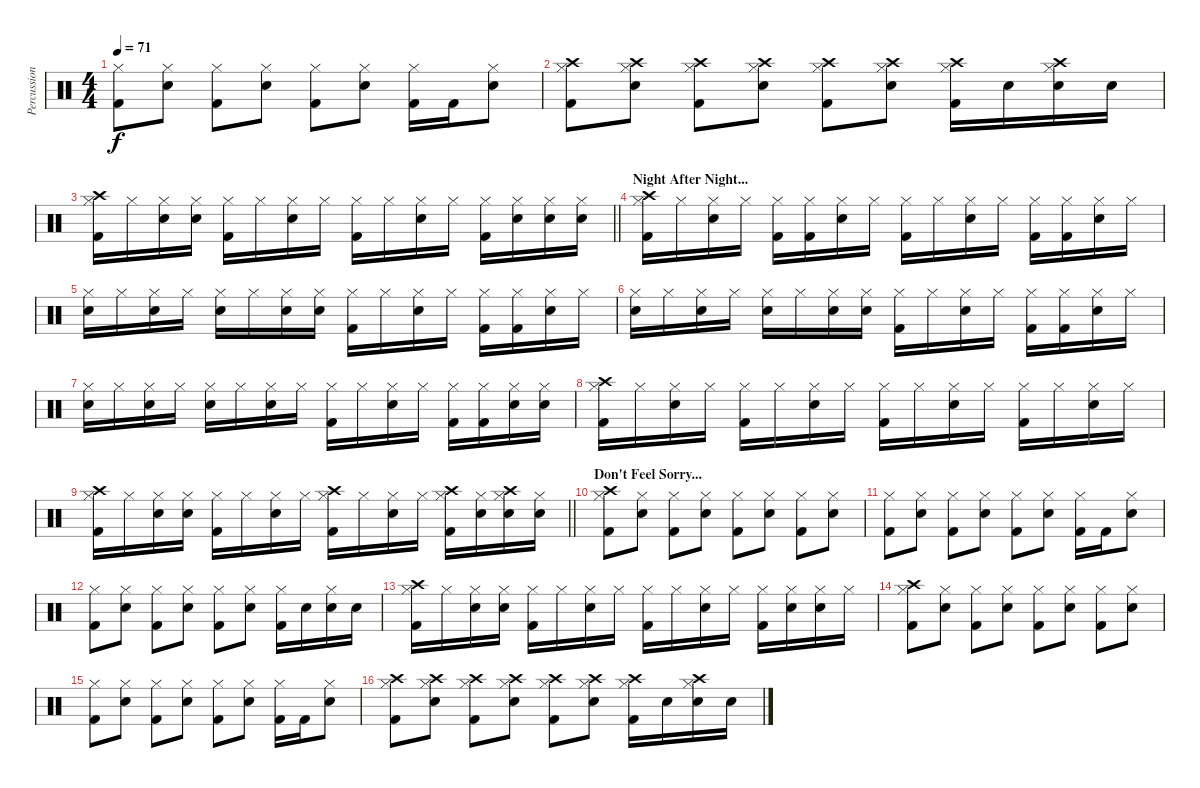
\track ("Percussion" "Percussion") {instrument percussion}
\staff {score}
\articulation defaults
\ts (4 4)
\tempo 71
\clef neutral
\ks c
("Kick (hit) 2" "Hi-Hat (closed)").8{dy f} ("Snare (hit) 2" "Hi-Hat (closed)").8 ("Kick (hit) 2" "Hi-Hat (closed)").8 ("Snare (hit) 2" "Hi-Hat (closed)").8 ("Kick (hit) 2" "Hi-Hat (closed)").8 ("Snare (hit) 2" "Hi-Hat (closed)").8 ("Kick (hit) 2" "Hi-Hat (closed)").16 "Kick (hit) 2".16 ("Snare (hit) 2" "Hi-Hat (closed)").8 |
("Crash high (hit)" "Kick (hit) 2" "Hi-Hat (closed)").8 ("Crash high (hit)" "Snare (hit) 2" "Hi-Hat (closed)").8 ("Crash high (hit)" "Kick (hit) 2" "Hi-Hat (closed)").8 ("Crash high (hit)" "Snare (hit) 2" "Hi-Hat (closed)").8 ("Crash high (hit)" "Kick (hit) 2" "Hi-Hat (closed)").8 ("Crash high (hit)" "Snare (hit) 2" "Hi-Hat (closed)").8 ("Crash high (hit)" "Kick (hit) 2" "Hi-Hat (closed)").16 "Snare (hit) 2".16 ("Crash high (hit)" "Snare (hit) 2" "Hi-Hat (closed)").16 "Snare (hit) 2".16 |
\barLineRight lightlight
("Crash high (hit)" "Hi-Hat (closed)" "Kick (hit) 2").16 "Hi-Hat (closed)".16 ("Hi-Hat (closed)" "Snare (hit) 2").16 ("Hi-Hat (closed)" "Snare (hit) 2").16 ("Hi-Hat (closed)" "Kick (hit) 2").16 "Hi-Hat (closed)".16 ("Hi-Hat (closed)" "Snare (hit) 2").16 "Hi-Hat (closed)".16 ("Hi-Hat (closed)" "Kick (hit) 2").16 "Hi-Hat (closed)".16 ("Hi-Hat (closed)" "Snare (hit) 2").16 "Hi-Hat (closed)".16 ("Hi-Hat (closed)" "Kick (hit) 2").16 ("Hi-Hat (closed)" "Snare (hit) 2").16 ("Hi-Hat (closed)" "Snare (hit) 2").16 ("Hi-Hat (closed)" "Snare (hit) 2").16 |
\section ("" "Night After Night...")
("Crash high (hit)" "Hi-Hat (closed)" "Kick (hit) 2").16 "Hi-Hat (closed)".16 ("Hi-Hat (closed)" "Snare (hit) 2").16 "Hi-Hat (closed)".16 ("Hi-Hat (closed)" "Kick (hit) 2").16 ("Hi-Hat (closed)" "Kick (hit) 2").16 ("Hi-Hat (closed)" "Snare (hit) 2").16 "Hi-Hat (closed)".16 ("Hi-Hat (closed)" "Kick (hit) 2").16 "Hi-Hat (closed)".16 ("Hi-Hat (closed)" "Snare (hit) 2").16 "Hi-Hat (closed)".16 ("Hi-Hat (closed)" "Kick (hit) 2").16 ("Hi-Hat (closed)" "Kick (hit) 2").16 ("Hi-Hat (closed)" "Snare (hit) 2").16 "Hi-Hat (closed)".16 |
("Hi-Hat (closed)" "Snare (hit) 2").16 "Hi-Hat (closed)".16 ("Hi-Hat (closed)" "Snare (hit) 2").16 "Hi-Hat (closed)".16 ("Hi-Hat (closed)" "Snare (hit) 2").16 "Hi-Hat (closed)".16 ("Hi-Hat (closed)" "Snare (hit) 2").16 ("Hi-Hat (closed)" "Snare (hit) 2").16 ("Hi-Hat (closed)" "Kick (hit) 2").16 "Hi-Hat (closed)".16 ("Hi-Hat (closed)" "Snare (hit) 2").16 "Hi-Hat (closed)".16 ("Hi-Hat (closed)" "Kick (hit) 2").16 ("Hi-Hat (closed)" "Kick (hit) 2").16 ("Hi-Hat (closed)" "Snare (hit) 2").16 "Hi-Hat (closed)".16 |
("Hi-Hat (closed)" "Snare (hit) 2").16 "Hi-Hat (closed)".16 ("Hi-Hat (closed)" "Snare (hit) 2").16 "Hi-Hat (closed)".16 ("Hi-Hat (closed)" "Snare (hit) 2").16 "Hi-Hat (closed)".16 ("Hi-Hat (closed)" "Snare (hit) 2").16 ("Hi-Hat (closed)" "Snare (hit) 2").16 ("Hi-Hat (closed)" "Kick (hit) 2").16 "Hi-Hat (closed)".16 ("Hi-Hat (closed)" "Snare (hit) 2").16 "Hi-Hat (closed)".16 ("Hi-Hat (closed)" "Kick (hit) 2").16 ("Hi-Hat (closed)" "Kick (hit) 2").16 ("Hi-Hat (closed)" "Snare (hit) 2").16 "Hi-Hat (closed)".16 |
("Hi-Hat (closed)" "Snare (hit) 2").16 "Hi-Hat (closed)".16 ("Hi-Hat (closed)" "Snare (hit) 2").16 "Hi-Hat (closed)".16 ("Hi-Hat (closed)" "Snare (hit) 2").16 "Hi-Hat (closed)".16 ("Hi-Hat (closed)" "Snare (hit) 2").16 "Hi-Hat (closed)".16 ("Hi-Hat (closed)" "Kick (hit) 2").16 "Hi-Hat (closed)".16 ("Hi-Hat (closed)" "Snare (hit) 2").16 "Hi-Hat (closed)".16 ("Hi-Hat (closed)" "Kick (hit) 2").16 ("Hi-Hat (closed)" "Kick (hit) 2").16 ("Hi-Hat (closed)" "Snare (hit) 2").16 ("Hi-Hat (closed)" "Snare (hit) 2").16 |
("Crash high (hit)" "Hi-Hat (closed)" "Kick (hit) 2").16 "Hi-Hat (closed)".16 ("Hi-Hat (closed)" "Snare (hit) 2").16 "Hi-Hat (closed)".16 ("Hi-Hat (closed)" "Kick (hit) 2").16 "Hi-Hat (closed)".16 ("Hi-Hat (closed)" "Snare (hit) 2").16 "Hi-Hat (closed)".16 ("Hi-Hat (closed)" "Kick (hit) 2").16 "Hi-Hat (closed)".16 ("Hi-Hat (closed)" "Snare (hit) 2").16 "Hi-Hat (closed)".16 ("Hi-Hat (closed)" "Kick (hit) 2").16 "Hi-Hat (closed)".16 ("Hi-Hat (closed)" "Snare (hit) 2").16 "Hi-Hat (closed)".16 |
\barLineRight lightlight
("Crash high (hit)" "Hi-Hat (closed)" "Kick (hit) 2").16 "Hi-Hat (closed)".16 ("Hi-Hat (closed)" "Snare (hit) 2").16 ("Hi-Hat (closed)" "Snare (hit) 2").16 ("Hi-Hat (closed)" "Kick (hit) 2").16 "Hi-Hat (closed)".16 ("Hi-Hat (closed)" "Snare (hit) 2").16 "Hi-Hat (closed)".16 ("Crash high (hit)" "Hi-Hat (closed)" "Kick (hit) 2").16 "Hi-Hat (closed)".16 ("Hi-Hat (closed)" "Snare (hit) 2").16 "Hi-Hat (closed)".16 ("Crash high (hit)" "Hi-Hat (closed)" "Kick (hit) 2").16 ("Hi-Hat (closed)" "Snare (hit) 2").16 ("Crash high (hit)" "Hi-Hat (closed)" "Snare (hit) 2").16 ("Hi-Hat (closed)" "Snare (hit) 2").16 |
\section ("" "Don't Feel Sorry...")
("Crash high (hit)" "Kick (hit) 2" "Hi-Hat (closed)").8 ("Snare (hit) 2" "Hi-Hat (closed)").8 ("Kick (hit) 2" "Hi-Hat (closed)").8 ("Snare (hit) 2" "Hi-Hat (closed)").8 ("Kick (hit) 2" "Hi-Hat (closed)").8 ("Snare (hit) 2" "Hi-Hat (closed)").8 ("Kick (hit) 2" "Hi-Hat (closed)").8 ("Snare (hit) 2" "Hi-Hat (closed)").8 |
("Kick (hit) 2" "Hi-Hat (closed)").8 ("Snare (hit) 2" "Hi-Hat (closed)").8 ("Kick (hit) 2" "Hi-Hat (closed)").8 ("Snare (hit) 2" "Hi-Hat (closed)").8 ("Kick (hit) 2" "Hi-Hat (closed)").8 ("Snare (hit) 2" "Hi-Hat (closed)").8 ("Kick (hit) 2" "Hi-Hat (closed)").16 "Kick (hit) 2".16 ("Snare (hit) 2" "Hi-Hat (closed)").8 |
("Kick (hit) 2" "Hi-Hat (closed)").8 ("Snare (hit) 2" "Hi-Hat (closed)").8 ("Kick (hit) 2" "Hi-Hat (closed)").8 ("Snare (hit) 2" "Hi-Hat (closed)").8 ("Kick (hit) 2" "Hi-Hat (closed)").8 ("Snare (hit) 2" "Hi-Hat (closed)").8 ("Kick (hit) 2" "Hi-Hat (closed)").16 "Snare (hit) 2".16 ("Snare (hit) 2" "Hi-Hat (closed)").16 "Snare (hit) 2".16 |
("Crash high (hit)" "Hi-Hat (closed)" "Kick (hit) 2").16 "Hi-Hat (closed)".16 ("Hi-Hat (closed)" "Snare (hit) 2").16 ("Hi-Hat (closed)" "Snare (hit) 2").16 ("Hi-Hat (closed)" "Kick (hit) 2").16 "Hi-Hat (closed)".16 ("Hi-Hat (closed)" "Snare (hit) 2").16 "Hi-Hat (closed)".16 ("Hi-Hat (closed)" "Kick (hit) 2").16 "Hi-Hat (closed)".16 ("Hi-Hat (closed)" "Snare (hit) 2").16 "Hi-Hat (closed)".16 ("Hi-Hat (closed)" "Kick (hit) 2").16 ("Hi-Hat (closed)" "Snare (hit) 2").16 ("Hi-Hat (closed)" "Snare (hit) 2").16 "Hi-Hat (closed)".16 |
("Crash high (hit)" "Kick (hit) 2" "Hi-Hat (closed)").8 ("Snare (hit) 2" "Hi-Hat (closed)").8 ("Kick (hit) 2" "Hi-Hat (closed)").8 ("Snare (hit) 2" "Hi-Hat (closed)").8 ("Kick (hit) 2" "Hi-Hat (closed)").8 ("Snare (hit) 2" "Hi-Hat (closed)").8 ("Kick (hit) 2" "Hi-Hat (closed)").8 ("Snare (hit) 2" "Hi-Hat (closed)").8 |
("Kick (hit) 2" "Hi-Hat (closed)").8 ("Snare (hit) 2" "Hi-Hat (closed)").8 ("Kick (hit) 2" "Hi-Hat (closed)").8 ("Snare (hit) 2" "Hi-Hat (closed)").8 ("Kick (hit) 2" "Hi-Hat (closed)").8 ("Snare (hit) 2" "Hi-Hat (closed)").8 ("Kick (hit) 2" "Hi-Hat (closed)").16 "Kick (hit) 2".16 ("Snare (hit) 2" "Hi-Hat (closed)").8 |
("Crash high (hit)" "Kick (hit) 2" "Hi-Hat (closed)").8 ("Crash high (hit)" "Snare (hit) 2" "Hi-Hat (closed)").8 ("Crash high (hit)" "Kick (hit) 2" "Hi-Hat (closed)").8 ("Crash high (hit)" "Snare (hit) 2" "Hi-Hat (closed)").8 ("Crash high (hit)" "Kick (hit) 2" "Hi-Hat (closed)").8 ("Crash high (hit)" "Snare (hit) 2" "Hi-Hat (closed)").8 ("Crash high (hit)" "Kick (hit) 2" "Hi-Hat (closed)").16 "Snare (hit) 2".16 ("Crash high (hit)" "Snare (hit) 2" "Hi-Hat (closed)").16 "Snare (hit) 2".16
